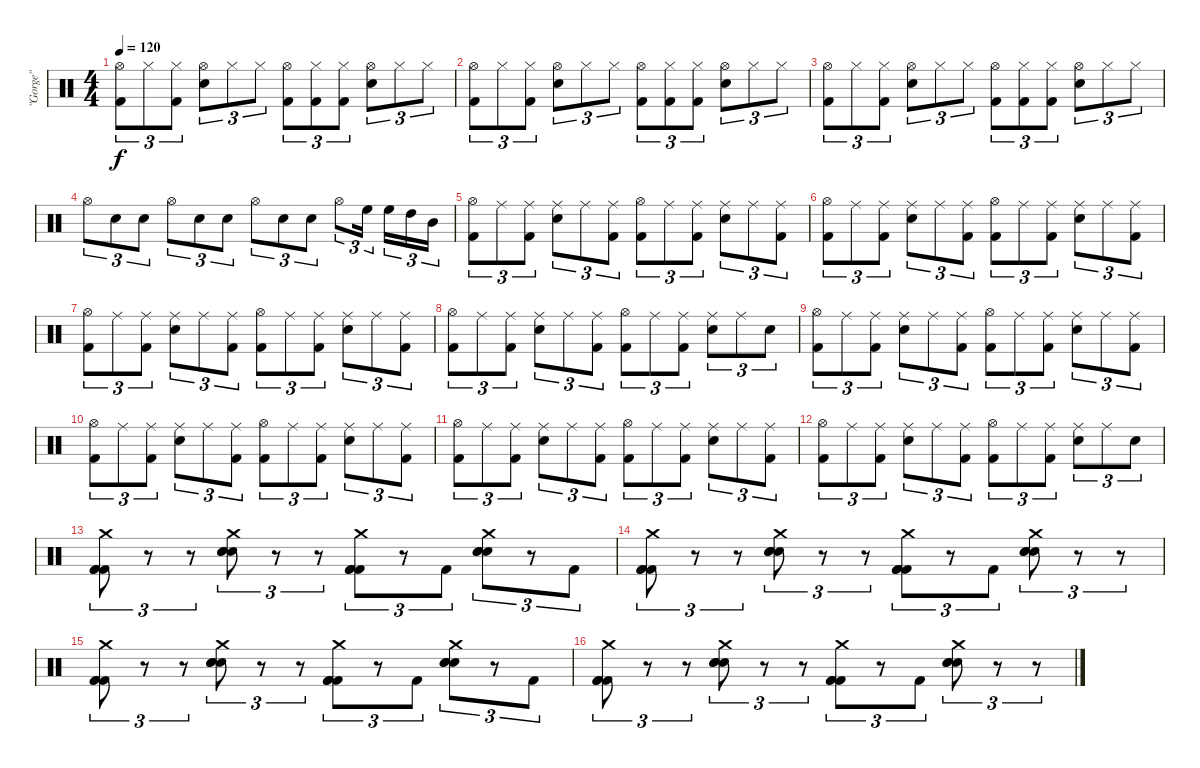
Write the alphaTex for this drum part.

\track ("\"Gorge\"" "\"Gorge\"") {instrument percussion}
\staff {score}
\articulation defaults
\ts (4 4)
\tempo 120
\clef neutral
\ks c
("Hi-Hat (open)" "Kick (hit) 2").8{tu (3 2) dy f} "Hi-Hat (closed)".8{tu (3 2)} ("Hi-Hat (closed)" "Kick (hit) 2").8{tu (3 2)} ("Hi-Hat (open)" "Electric Snare (hit)").8{tu (3 2)} "Hi-Hat (closed)".8{tu (3 2)} "Hi-Hat (closed)".8{tu (3 2)} ("Hi-Hat (open)" "Kick (hit) 2").8{tu (3 2)} ("Hi-Hat (closed)" "Kick (hit) 2").8{tu (3 2)} ("Hi-Hat (closed)" "Kick (hit) 2").8{tu (3 2)} ("Hi-Hat (open)" "Electric Snare (hit)").8{tu (3 2)} "Hi-Hat (closed)".8{tu (3 2)} "Hi-Hat (closed)".8{tu (3 2)} |
("Hi-Hat (open)" "Kick (hit) 2").8{tu (3 2)} "Hi-Hat (closed)".8{tu (3 2)} ("Hi-Hat (closed)" "Kick (hit) 2").8{tu (3 2)} ("Hi-Hat (open)" "Electric Snare (hit)").8{tu (3 2)} "Hi-Hat (closed)".8{tu (3 2)} "Hi-Hat (closed)".8{tu (3 2)} ("Hi-Hat (open)" "Kick (hit) 2").8{tu (3 2)} ("Hi-Hat (closed)" "Kick (hit) 2").8{tu (3 2)} ("Hi-Hat (closed)" "Kick (hit) 2").8{tu (3 2)} ("Hi-Hat (open)" "Electric Snare (hit)").8{tu (3 2)} "Hi-Hat (closed)".8{tu (3 2)} "Hi-Hat (closed)".8{tu (3 2)} |
("Hi-Hat (open)" "Kick (hit) 2").8{tu (3 2)} "Hi-Hat (closed)".8{tu (3 2)} ("Hi-Hat (closed)" "Kick (hit) 2").8{tu (3 2)} ("Hi-Hat (open)" "Electric Snare (hit)").8{tu (3 2)} "Hi-Hat (closed)".8{tu (3 2)} "Hi-Hat (closed)".8{tu (3 2)} ("Hi-Hat (open)" "Kick (hit) 2").8{tu (3 2)} ("Hi-Hat (closed)" "Kick (hit) 2").8{tu (3 2)} ("Hi-Hat (closed)" "Kick (hit) 2").8{tu (3 2)} ("Hi-Hat (open)" "Electric Snare (hit)").8{tu (3 2)} "Hi-Hat (closed)".8{tu (3 2)} "Hi-Hat (closed)".8{tu (3 2)} |
"Hi-Hat (open)".8{tu (3 2)} "Electric Snare (hit)".8{tu (3 2)} "Electric Snare (hit)".8{tu (3 2)} "Hi-Hat (open)".8{tu (3 2)} "Electric Snare (hit)".8{tu (3 2)} "Electric Snare (hit)".8{tu (3 2)} "Hi-Hat (open)".8{tu (3 2)} "Electric Snare (hit)".8{tu (3 2)} "Electric Snare (hit)".8{tu (3 2)} "Hi-Hat (open)".8{tu (3 2)} "High Floor Tom (hit)".16{tu (3 2)} "High Floor Tom (hit)".16{tu (3 2)} "High Tom (hit)".16{tu (3 2)} "Mid Tom (hit)".16{tu (3 2)} |
("Hi-Hat (open)" "Kick (hit) 2").8{tu (3 2)} "Ride (middle)".8{tu (3 2)} ("Ride (middle)" "Kick (hit) 2").8{tu (3 2)} ("Ride (middle)" "Electric Snare (hit)").8{tu (3 2)} "Ride (middle)".8{tu (3 2)} ("Ride (middle)" "Kick (hit) 2").8{tu (3 2)} ("Hi-Hat (open)" "Kick (hit) 2").8{tu (3 2)} "Ride (middle)".8{tu (3 2)} ("Ride (middle)" "Kick (hit) 2").8{tu (3 2)} ("Ride (middle)" "Electric Snare (hit)").8{tu (3 2)} "Ride (middle)".8{tu (3 2)} ("Ride (middle)" "Kick (hit) 2").8{tu (3 2)} |
("Hi-Hat (open)" "Kick (hit) 2").8{tu (3 2)} "Ride (middle)".8{tu (3 2)} ("Ride (middle)" "Kick (hit) 2").8{tu (3 2)} ("Ride (middle)" "Electric Snare (hit)").8{tu (3 2)} "Ride (middle)".8{tu (3 2)} ("Ride (middle)" "Kick (hit) 2").8{tu (3 2)} ("Hi-Hat (open)" "Kick (hit) 2").8{tu (3 2)} "Ride (middle)".8{tu (3 2)} ("Ride (middle)" "Kick (hit) 2").8{tu (3 2)} ("Ride (middle)" "Electric Snare (hit)").8{tu (3 2)} "Ride (middle)".8{tu (3 2)} ("Ride (middle)" "Kick (hit) 2").8{tu (3 2)} |
("Hi-Hat (open)" "Kick (hit) 2").8{tu (3 2)} "Ride (middle)".8{tu (3 2)} ("Ride (middle)" "Kick (hit) 2").8{tu (3 2)} ("Ride (middle)" "Electric Snare (hit)").8{tu (3 2)} "Ride (middle)".8{tu (3 2)} ("Ride (middle)" "Kick (hit) 2").8{tu (3 2)} ("Hi-Hat (open)" "Kick (hit) 2").8{tu (3 2)} "Ride (middle)".8{tu (3 2)} ("Ride (middle)" "Kick (hit) 2").8{tu (3 2)} ("Ride (middle)" "Electric Snare (hit)").8{tu (3 2)} "Ride (middle)".8{tu (3 2)} ("Ride (middle)" "Kick (hit) 2").8{tu (3 2)} |
("Hi-Hat (open)" "Kick (hit) 2").8{tu (3 2)} "Ride (middle)".8{tu (3 2)} ("Ride (middle)" "Kick (hit) 2").8{tu (3 2)} ("Ride (middle)" "Electric Snare (hit)").8{tu (3 2)} "Ride (middle)".8{tu (3 2)} ("Ride (middle)" "Kick (hit) 2").8{tu (3 2)} ("Hi-Hat (open)" "Kick (hit) 2").8{tu (3 2)} "Ride (middle)".8{tu (3 2)} ("Ride (middle)" "Kick (hit) 2").8{tu (3 2)} ("Ride (middle)" "Electric Snare (hit)").8{tu (3 2)} "Ride (middle)".8{tu (3 2)} "Electric Snare (hit)".8{tu (3 2)} |
("Hi-Hat (open)" "Kick (hit) 2").8{tu (3 2)} "Ride (middle)".8{tu (3 2)} ("Ride (middle)" "Kick (hit) 2").8{tu (3 2)} ("Ride (middle)" "Electric Snare (hit)").8{tu (3 2)} "Ride (middle)".8{tu (3 2)} ("Ride (middle)" "Kick (hit) 2").8{tu (3 2)} ("Hi-Hat (open)" "Kick (hit) 2").8{tu (3 2)} "Ride (middle)".8{tu (3 2)} ("Ride (middle)" "Kick (hit) 2").8{tu (3 2)} ("Ride (middle)" "Electric Snare (hit)").8{tu (3 2)} "Ride (middle)".8{tu (3 2)} ("Ride (middle)" "Kick (hit) 2").8{tu (3 2)} |
("Hi-Hat (open)" "Kick (hit) 2").8{tu (3 2)} "Ride (middle)".8{tu (3 2)} ("Ride (middle)" "Kick (hit) 2").8{tu (3 2)} ("Ride (middle)" "Electric Snare (hit)").8{tu (3 2)} "Ride (middle)".8{tu (3 2)} ("Ride (middle)" "Kick (hit) 2").8{tu (3 2)} ("Hi-Hat (open)" "Kick (hit) 2").8{tu (3 2)} "Ride (middle)".8{tu (3 2)} ("Ride (middle)" "Kick (hit) 2").8{tu (3 2)} ("Ride (middle)" "Electric Snare (hit)").8{tu (3 2)} "Ride (middle)".8{tu (3 2)} ("Ride (middle)" "Kick (hit) 2").8{tu (3 2)} |
("Hi-Hat (open)" "Kick (hit) 2").8{tu (3 2)} "Ride (middle)".8{tu (3 2)} ("Ride (middle)" "Kick (hit) 2").8{tu (3 2)} ("Ride (middle)" "Electric Snare (hit)").8{tu (3 2)} "Ride (middle)".8{tu (3 2)} ("Ride (middle)" "Kick (hit) 2").8{tu (3 2)} ("Hi-Hat (open)" "Kick (hit) 2").8{tu (3 2)} "Ride (middle)".8{tu (3 2)} ("Ride (middle)" "Kick (hit) 2").8{tu (3 2)} ("Ride (middle)" "Electric Snare (hit)").8{tu (3 2)} "Ride (middle)".8{tu (3 2)} ("Ride (middle)" "Kick (hit) 2").8{tu (3 2)} |
("Hi-Hat (open)" "Kick (hit) 2").8{tu (3 2)} "Ride (middle)".8{tu (3 2)} ("Ride (middle)" "Kick (hit) 2").8{tu (3 2)} ("Ride (middle)" "Electric Snare (hit)").8{tu (3 2)} "Ride (middle)".8{tu (3 2)} ("Ride (middle)" "Kick (hit) 2").8{tu (3 2)} ("Hi-Hat (open)" "Kick (hit) 2").8{tu (3 2)} "Ride (middle)".8{tu (3 2)} ("Ride (middle)" "Kick (hit) 2").8{tu (3 2)} ("Ride (middle)" "Electric Snare (hit)").8{tu (3 2)} "Ride (middle)".8{tu (3 2)} "Electric Snare (hit)".8{tu (3 2)} |
("Crash medium (hit)" "Kick (hit) 2" "Kick (hit) 2" "Kick (hit) 2").8{tu (3 2)} r.8{tu (3 2)} r.8{tu (3 2)} ("Crash medium (hit)" "Electric Snare (hit)" "Electric Snare (hit)" "Electric Snare (hit)").8{tu (3 2)} r.8{tu (3 2)} r.8{tu (3 2)} ("Crash medium (hit)" "Kick (hit) 2" "Kick (hit) 2" "Kick (hit) 2").8{tu (3 2)} r.8{tu (3 2)} "Kick (hit) 2".8{tu (3 2)} ("Crash medium (hit)" "Electric Snare (hit)" "Electric Snare (hit)" "Electric Snare (hit)").8{tu (3 2)} r.8{tu (3 2)} "Kick (hit) 2".8{tu (3 2)} |
("Crash medium (hit)" "Kick (hit) 2" "Kick (hit) 2" "Kick (hit) 2").8{tu (3 2)} r.8{tu (3 2)} r.8{tu (3 2)} ("Crash medium (hit)" "Electric Snare (hit)" "Electric Snare (hit)" "Electric Snare (hit)").8{tu (3 2)} r.8{tu (3 2)} r.8{tu (3 2)} ("Crash medium (hit)" "Kick (hit) 2" "Kick (hit) 2" "Kick (hit) 2").8{tu (3 2)} r.8{tu (3 2)} "Kick (hit) 2".8{tu (3 2)} ("Crash medium (hit)" "Electric Snare (hit)" "Electric Snare (hit)" "Electric Snare (hit)").8{tu (3 2)} r.8{tu (3 2)} r.8{tu (3 2)} |
("Crash medium (hit)" "Kick (hit) 2" "Kick (hit) 2" "Kick (hit) 2").8{tu (3 2)} r.8{tu (3 2)} r.8{tu (3 2)} ("Crash medium (hit)" "Electric Snare (hit)" "Electric Snare (hit)" "Electric Snare (hit)").8{tu (3 2)} r.8{tu (3 2)} r.8{tu (3 2)} ("Crash medium (hit)" "Kick (hit) 2" "Kick (hit) 2" "Kick (hit) 2").8{tu (3 2)} r.8{tu (3 2)} "Kick (hit) 2".8{tu (3 2)} ("Crash medium (hit)" "Electric Snare (hit)" "Electric Snare (hit)" "Electric Snare (hit)").8{tu (3 2)} r.8{tu (3 2)} "Kick (hit) 2".8{tu (3 2)} |
("Crash medium (hit)" "Kick (hit) 2" "Kick (hit) 2" "Kick (hit) 2").8{tu (3 2)} r.8{tu (3 2)} r.8{tu (3 2)} ("Crash medium (hit)" "Electric Snare (hit)" "Electric Snare (hit)" "Electric Snare (hit)").8{tu (3 2)} r.8{tu (3 2)} r.8{tu (3 2)} ("Crash medium (hit)" "Kick (hit) 2" "Kick (hit) 2" "Kick (hit) 2").8{tu (3 2)} r.8{tu (3 2)} "Kick (hit) 2".8{tu (3 2)} ("Crash medium (hit)" "Electric Snare (hit)" "Electric Snare (hit)" "Electric Snare (hit)").8{tu (3 2)} r.8{tu (3 2)} r.8{tu (3 2)}
